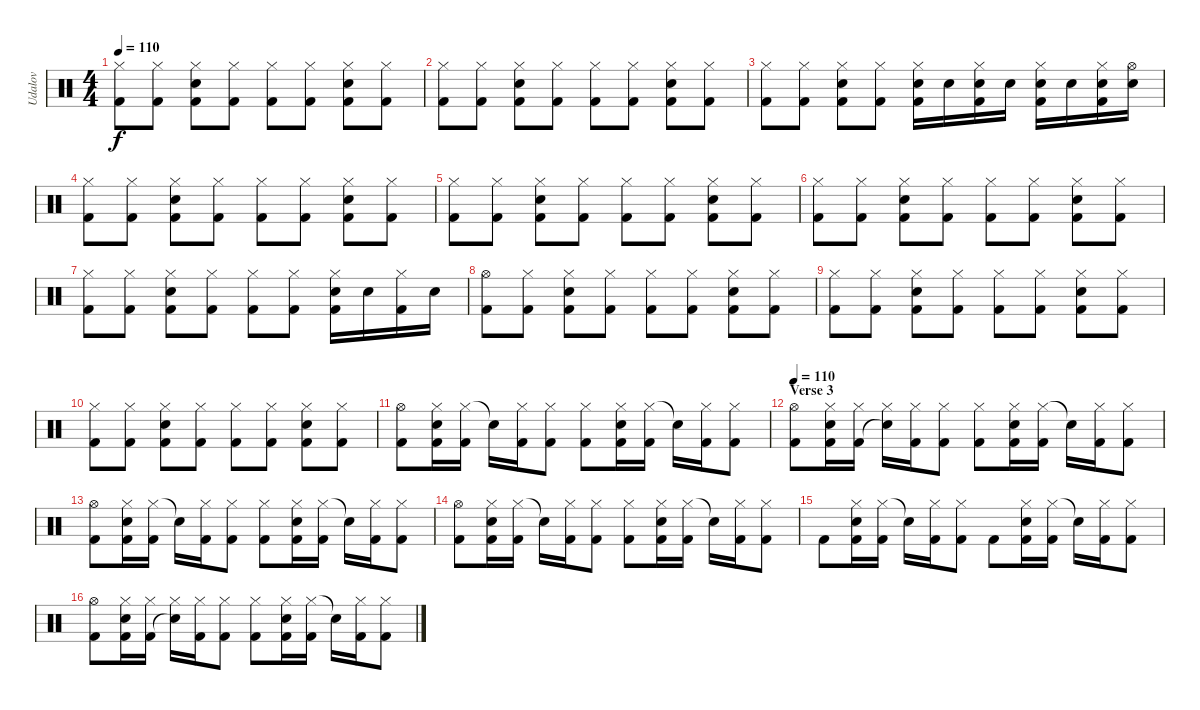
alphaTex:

\track ("Udalov" "Udalov") {instrument percussion}
\staff {score}
\articulation defaults
\ts (4 4)
\tempo 110
\clef neutral
\ks c
("Hi-Hat (closed)" "Kick (hit) 2").8{dy f} ("Hi-Hat (closed)" "Kick (hit) 2").8 ("Hi-Hat (closed)" "Snare (hit) 2" "Kick (hit) 2").8 ("Hi-Hat (closed)" "Kick (hit) 2").8 ("Hi-Hat (closed)" "Kick (hit) 2").8 ("Hi-Hat (closed)" "Kick (hit) 2").8 ("Hi-Hat (closed)" "Snare (hit) 2" "Kick (hit) 2").8 ("Hi-Hat (closed)" "Kick (hit) 2").8 |
("Hi-Hat (closed)" "Kick (hit) 2").8 ("Hi-Hat (closed)" "Kick (hit) 2").8 ("Hi-Hat (closed)" "Snare (hit) 2" "Kick (hit) 2").8 ("Hi-Hat (closed)" "Kick (hit) 2").8 ("Hi-Hat (closed)" "Kick (hit) 2").8 ("Hi-Hat (closed)" "Kick (hit) 2").8 ("Hi-Hat (closed)" "Snare (hit) 2" "Kick (hit) 2").8 ("Hi-Hat (closed)" "Kick (hit) 2").8 |
("Hi-Hat (closed)" "Kick (hit) 2").8 ("Hi-Hat (closed)" "Kick (hit) 2").8 ("Hi-Hat (closed)" "Snare (hit) 2" "Kick (hit) 2").8 ("Hi-Hat (closed)" "Kick (hit) 2").8 ("Hi-Hat (closed)" "Snare (hit) 2" "Kick (hit) 2").16 "Snare (hit) 2".16 ("Hi-Hat (closed)" "Snare (hit) 2" "Kick (hit) 2").16 "Snare (hit) 2".16 ("Hi-Hat (closed)" "Snare (hit) 2" "Kick (hit) 2").16 "Snare (hit) 2".16 ("Hi-Hat (closed)" "Snare (hit) 2" "Kick (hit) 2").16 ("Hi-Hat (open)" "Snare (hit) 2").16 |
("Hi-Hat (closed)" "Kick (hit) 2").8 ("Hi-Hat (closed)" "Kick (hit) 2").8 ("Hi-Hat (closed)" "Snare (hit) 2" "Kick (hit) 2").8 ("Hi-Hat (closed)" "Kick (hit) 2").8 ("Hi-Hat (closed)" "Kick (hit) 2").8 ("Hi-Hat (closed)" "Kick (hit) 2").8 ("Hi-Hat (closed)" "Snare (hit) 2" "Kick (hit) 2").8 ("Hi-Hat (closed)" "Kick (hit) 2").8 |
("Hi-Hat (closed)" "Kick (hit) 2").8 ("Hi-Hat (closed)" "Kick (hit) 2").8 ("Hi-Hat (closed)" "Snare (hit) 2" "Kick (hit) 2").8 ("Hi-Hat (closed)" "Kick (hit) 2").8 ("Hi-Hat (closed)" "Kick (hit) 2").8 ("Hi-Hat (closed)" "Kick (hit) 2").8 ("Hi-Hat (closed)" "Snare (hit) 2" "Kick (hit) 2").8 ("Hi-Hat (closed)" "Kick (hit) 2").8 |
("Hi-Hat (closed)" "Kick (hit) 2").8 ("Hi-Hat (closed)" "Kick (hit) 2").8 ("Hi-Hat (closed)" "Snare (hit) 2" "Kick (hit) 2").8 ("Hi-Hat (closed)" "Kick (hit) 2").8 ("Hi-Hat (closed)" "Kick (hit) 2").8 ("Hi-Hat (closed)" "Kick (hit) 2").8 ("Hi-Hat (closed)" "Snare (hit) 2" "Kick (hit) 2").8 ("Hi-Hat (closed)" "Kick (hit) 2").8 |
("Hi-Hat (closed)" "Kick (hit) 2").8 ("Hi-Hat (closed)" "Kick (hit) 2").8 ("Hi-Hat (closed)" "Snare (hit) 2" "Kick (hit) 2").8 ("Hi-Hat (closed)" "Kick (hit) 2").8 ("Hi-Hat (closed)" "Kick (hit) 2").8 ("Hi-Hat (closed)" "Kick (hit) 2").8 ("Hi-Hat (closed)" "Snare (hit) 2" "Kick (hit) 2").16 "Snare (hit) 2".16 ("Hi-Hat (closed)" "Kick (hit) 2").16 "Snare (hit) 2".16 |
("Hi-Hat (open)" "Kick (hit) 2").8 ("Hi-Hat (closed)" "Kick (hit) 2").8 ("Hi-Hat (closed)" "Snare (hit) 2" "Kick (hit) 2").8 ("Hi-Hat (closed)" "Kick (hit) 2").8 ("Hi-Hat (closed)" "Kick (hit) 2").8 ("Hi-Hat (closed)" "Kick (hit) 2").8 ("Hi-Hat (closed)" "Snare (hit) 2" "Kick (hit) 2").8 ("Hi-Hat (closed)" "Kick (hit) 2").8 |
("Hi-Hat (closed)" "Kick (hit) 2").8 ("Hi-Hat (closed)" "Kick (hit) 2").8 ("Hi-Hat (closed)" "Snare (hit) 2" "Kick (hit) 2").8 ("Hi-Hat (closed)" "Kick (hit) 2").8 ("Hi-Hat (closed)" "Kick (hit) 2").8 ("Hi-Hat (closed)" "Kick (hit) 2").8 ("Hi-Hat (closed)" "Snare (hit) 2" "Kick (hit) 2").8 ("Hi-Hat (closed)" "Kick (hit) 2").8 |
("Hi-Hat (closed)" "Kick (hit) 2").8 ("Hi-Hat (closed)" "Kick (hit) 2").8 ("Hi-Hat (closed)" "Snare (hit) 2" "Kick (hit) 2").8 ("Hi-Hat (closed)" "Kick (hit) 2").8 ("Hi-Hat (closed)" "Kick (hit) 2").8 ("Hi-Hat (closed)" "Kick (hit) 2").8 ("Hi-Hat (closed)" "Snare (hit) 2" "Kick (hit) 2").8 ("Hi-Hat (closed)" "Kick (hit) 2").8 |
("Hi-Hat (open)" "Kick (hit) 2").8 ("Hi-Hat (closed)" "Snare (hit) 2" "Kick (hit) 2").16 ("Hi-Hat (closed)" "Kick (hit) 2").16 "Snare (hit)"{t}.16 ("Hi-Hat (closed)" "Kick (hit) 2").16 ("Hi-Hat (closed)" "Kick (hit) 2").8 ("Hi-Hat (closed)" "Kick (hit) 2").8 ("Hi-Hat (closed)" "Snare (hit) 2" "Kick (hit) 2").16 ("Hi-Hat (closed)" "Kick (hit) 2").16 "Snare (hit)"{t}.16 ("Hi-Hat (closed)" "Kick (hit) 2").16 ("Hi-Hat (closed)" "Kick (hit) 2").8 |
\section ("" "Verse 3")
\tempo 110
("Hi-Hat (open)" "Kick (hit) 2").8 ("Hi-Hat (closed)" "Snare (hit) 2" "Kick (hit) 2").16 ("Hi-Hat (closed)" "Kick (hit) 2").16 ("Hi-Hat (closed)" "Snare (hit)"{t}).16 ("Hi-Hat (closed)" "Kick (hit) 2").16 ("Hi-Hat (closed)" "Kick (hit) 2").8 ("Hi-Hat (closed)" "Kick (hit) 2").8 ("Hi-Hat (closed)" "Snare (hit) 2" "Kick (hit) 2").16 ("Hi-Hat (closed)" "Kick (hit) 2").16 "Snare (hit)"{t}.16 ("Hi-Hat (closed)" "Kick (hit) 2").16 ("Hi-Hat (closed)" "Kick (hit) 2").8 |
("Hi-Hat (open)" "Kick (hit) 2").8 ("Hi-Hat (closed)" "Snare (hit) 2" "Kick (hit) 2").16 ("Hi-Hat (closed)" "Kick (hit) 2").16 "Snare (hit)"{t}.16 ("Hi-Hat (closed)" "Kick (hit) 2").16 ("Hi-Hat (closed)" "Kick (hit) 2").8 ("Hi-Hat (closed)" "Kick (hit) 2").8 ("Hi-Hat (closed)" "Snare (hit) 2" "Kick (hit) 2").16 ("Hi-Hat (closed)" "Kick (hit) 2").16 "Snare (hit)"{t}.16 ("Hi-Hat (closed)" "Kick (hit) 2").16 ("Hi-Hat (closed)" "Kick (hit) 2").8 |
("Hi-Hat (open)" "Kick (hit) 2").8 ("Hi-Hat (closed)" "Snare (hit) 2" "Kick (hit) 2").16 ("Hi-Hat (closed)" "Kick (hit) 2").16 "Snare (hit)"{t}.16 ("Hi-Hat (closed)" "Kick (hit) 2").16 ("Hi-Hat (closed)" "Kick (hit) 2").8 ("Hi-Hat (closed)" "Kick (hit) 2").8 ("Hi-Hat (closed)" "Snare (hit) 2" "Kick (hit) 2").16 ("Hi-Hat (closed)" "Kick (hit) 2").16 "Snare (hit)"{t}.16 ("Hi-Hat (closed)" "Kick (hit) 2").16 ("Hi-Hat (closed)" "Kick (hit) 2").8 |
"Kick (hit) 2".8 ("Hi-Hat (closed)" "Snare (hit) 2" "Kick (hit) 2").16 ("Hi-Hat (closed)" "Kick (hit) 2").16 "Snare (hit)"{t}.16 ("Hi-Hat (closed)" "Kick (hit) 2").16 ("Hi-Hat (closed)" "Kick (hit) 2").8 "Kick (hit) 2".8 ("Hi-Hat (closed)" "Snare (hit) 2" "Kick (hit) 2").16 ("Hi-Hat (closed)" "Kick (hit) 2").16 "Snare (hit)"{t}.16 ("Hi-Hat (closed)" "Kick (hit) 2").16 ("Hi-Hat (closed)" "Kick (hit) 2").8 |
("Hi-Hat (open)" "Kick (hit) 2").8 ("Hi-Hat (closed)" "Snare (hit) 2" "Kick (hit) 2").16 ("Hi-Hat (closed)" "Kick (hit) 2").16 ("Hi-Hat (closed)" "Snare (hit)"{t}).16 ("Hi-Hat (closed)" "Kick (hit) 2").16 ("Hi-Hat (closed)" "Kick (hit) 2").8 ("Hi-Hat (closed)" "Kick (hit) 2").8 ("Hi-Hat (closed)" "Snare (hit) 2" "Kick (hit) 2").16 ("Hi-Hat (closed)" "Kick (hit) 2").16 "Snare (hit)"{t}.16 ("Hi-Hat (closed)" "Kick (hit) 2").16 ("Hi-Hat (closed)" "Kick (hit) 2").8
